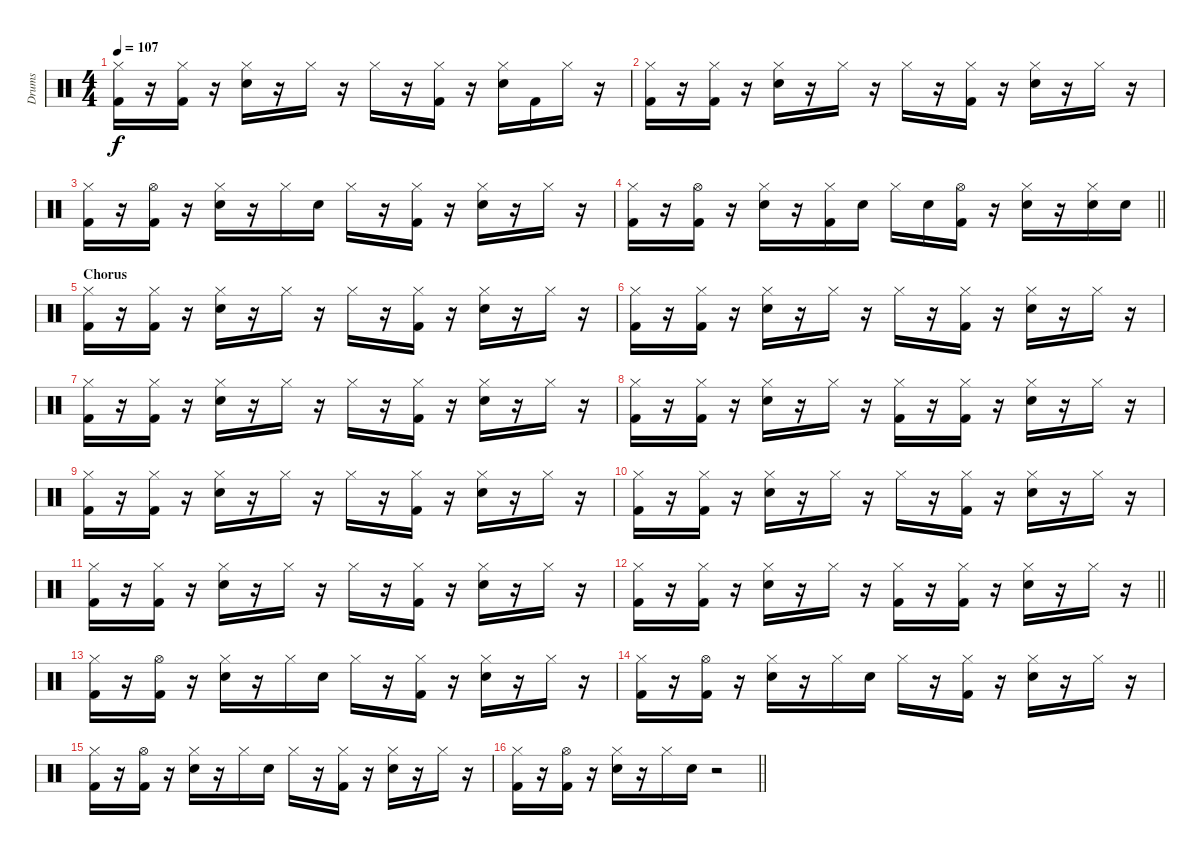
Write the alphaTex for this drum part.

\track ("Drums" "Drums") {instrument percussion}
\staff {score}
\articulation defaults
\ts (4 4)
\tempo 107
\clef neutral
\ks c
("Hi-Hat (closed)" "Kick (hit) 2").16{dy f} r.16 ("Hi-Hat (closed)" "Kick (hit) 2").16 r.16 ("Hi-Hat (closed)" "Electric Snare (hit)").16 r.16 "Hi-Hat (closed)".16 r.16 "Hi-Hat (closed)".16 r.16 ("Hi-Hat (closed)" "Kick (hit) 2").16 r.16 ("Hi-Hat (closed)" "Electric Snare (hit)").16 "Kick (hit) 2".16 "Hi-Hat (closed)".16 r.16 |
("Hi-Hat (closed)" "Kick (hit) 2").16 r.16 ("Hi-Hat (closed)" "Kick (hit) 2").16 r.16 ("Hi-Hat (closed)" "Electric Snare (hit)").16 r.16 "Hi-Hat (closed)".16 r.16 "Hi-Hat (closed)".16 r.16 ("Hi-Hat (closed)" "Kick (hit) 2").16 r.16 ("Hi-Hat (closed)" "Electric Snare (hit)").16 r.16 "Hi-Hat (closed)".16 r.16 |
("Hi-Hat (closed)" "Kick (hit) 2").16 r.16 ("Hi-Hat (open)" "Kick (hit) 2").16 r.16 ("Hi-Hat (closed)" "Electric Snare (hit)").16 r.16 "Hi-Hat (closed)".16 "Electric Snare (hit)".16 "Hi-Hat (closed)".16 r.16 ("Hi-Hat (closed)" "Kick (hit) 2").16 r.16 ("Hi-Hat (closed)" "Electric Snare (hit)").16 r.16 "Hi-Hat (closed)".16 r.16 |
\barLineRight lightlight
("Hi-Hat (closed)" "Kick (hit) 2").16 r.16 ("Hi-Hat (open)" "Kick (hit) 2").16 r.16 ("Hi-Hat (closed)" "Electric Snare (hit)").16 r.16 ("Hi-Hat (closed)" "Kick (hit) 2").16 "Electric Snare (hit)".16 "Hi-Hat (closed)".16 "Electric Snare (hit)".16 ("Hi-Hat (open)" "Kick (hit) 2").16 r.16 ("Hi-Hat (closed)" "Electric Snare (hit)").16 r.16 ("Hi-Hat (closed)" "Electric Snare (hit)").16 "Electric Snare (hit)".16 |
\section ("" "Chorus")
("Hi-Hat (closed)" "Kick (hit) 2").16 r.16 ("Hi-Hat (closed)" "Kick (hit) 2").16 r.16 ("Hi-Hat (closed)" "Electric Snare (hit)").16 r.16 "Hi-Hat (closed)".16 r.16 "Hi-Hat (closed)".16 r.16 ("Hi-Hat (closed)" "Kick (hit) 2").16 r.16 ("Hi-Hat (closed)" "Electric Snare (hit)").16 r.16 "Hi-Hat (closed)".16 r.16 |
("Hi-Hat (closed)" "Kick (hit) 2").16 r.16 ("Hi-Hat (closed)" "Kick (hit) 2").16 r.16 ("Hi-Hat (closed)" "Electric Snare (hit)").16 r.16 "Hi-Hat (closed)".16 r.16 "Hi-Hat (closed)".16 r.16 ("Hi-Hat (closed)" "Kick (hit) 2").16 r.16 ("Hi-Hat (closed)" "Electric Snare (hit)").16 r.16 "Hi-Hat (closed)".16 r.16 |
("Hi-Hat (closed)" "Kick (hit) 2").16 r.16 ("Hi-Hat (closed)" "Kick (hit) 2").16 r.16 ("Hi-Hat (closed)" "Electric Snare (hit)").16 r.16 "Hi-Hat (closed)".16 r.16 "Hi-Hat (closed)".16 r.16 ("Hi-Hat (closed)" "Kick (hit) 2").16 r.16 ("Hi-Hat (closed)" "Electric Snare (hit)").16 r.16 "Hi-Hat (closed)".16 r.16 |
("Hi-Hat (closed)" "Kick (hit) 2").16 r.16 ("Hi-Hat (closed)" "Kick (hit) 2").16 r.16 ("Hi-Hat (closed)" "Electric Snare (hit)").16 r.16 "Hi-Hat (closed)".16 r.16 ("Hi-Hat (closed)" "Kick (hit) 2").16 r.16 ("Hi-Hat (closed)" "Kick (hit) 2").16 r.16 ("Hi-Hat (closed)" "Electric Snare (hit)").16 r.16 "Hi-Hat (closed)".16 r.16 |
("Hi-Hat (closed)" "Kick (hit) 2").16 r.16 ("Hi-Hat (closed)" "Kick (hit) 2").16 r.16 ("Hi-Hat (closed)" "Electric Snare (hit)").16 r.16 "Hi-Hat (closed)".16 r.16 "Hi-Hat (closed)".16 r.16 ("Hi-Hat (closed)" "Kick (hit) 2").16 r.16 ("Hi-Hat (closed)" "Electric Snare (hit)").16 r.16 "Hi-Hat (closed)".16 r.16 |
("Hi-Hat (closed)" "Kick (hit) 2").16 r.16 ("Hi-Hat (closed)" "Kick (hit) 2").16 r.16 ("Hi-Hat (closed)" "Electric Snare (hit)").16 r.16 "Hi-Hat (closed)".16 r.16 "Hi-Hat (closed)".16 r.16 ("Hi-Hat (closed)" "Kick (hit) 2").16 r.16 ("Hi-Hat (closed)" "Electric Snare (hit)").16 r.16 "Hi-Hat (closed)".16 r.16 |
("Hi-Hat (closed)" "Kick (hit) 2").16 r.16 ("Hi-Hat (closed)" "Kick (hit) 2").16 r.16 ("Hi-Hat (closed)" "Electric Snare (hit)").16 r.16 "Hi-Hat (closed)".16 r.16 "Hi-Hat (closed)".16 r.16 ("Hi-Hat (closed)" "Kick (hit) 2").16 r.16 ("Hi-Hat (closed)" "Electric Snare (hit)").16 r.16 "Hi-Hat (closed)".16 r.16 |
\barLineRight lightlight
("Hi-Hat (closed)" "Kick (hit) 2").16 r.16 ("Hi-Hat (closed)" "Kick (hit) 2").16 r.16 ("Hi-Hat (closed)" "Electric Snare (hit)").16 r.16 "Hi-Hat (closed)".16 r.16 ("Hi-Hat (closed)" "Kick (hit) 2").16 r.16 ("Hi-Hat (closed)" "Kick (hit) 2").16 r.16 ("Hi-Hat (closed)" "Electric Snare (hit)").16 r.16 "Hi-Hat (closed)".16 r.16 |
("Hi-Hat (closed)" "Kick (hit) 2").16 r.16 ("Hi-Hat (open)" "Kick (hit) 2").16 r.16 ("Hi-Hat (closed)" "Electric Snare (hit)").16 r.16 "Hi-Hat (closed)".16 "Electric Snare (hit)".16 "Hi-Hat (closed)".16 r.16 ("Hi-Hat (closed)" "Kick (hit) 2").16 r.16 ("Hi-Hat (closed)" "Electric Snare (hit)").16 r.16 "Hi-Hat (closed)".16 r.16 |
("Hi-Hat (closed)" "Kick (hit) 2").16 r.16 ("Hi-Hat (open)" "Kick (hit) 2").16 r.16 ("Hi-Hat (closed)" "Electric Snare (hit)").16 r.16 "Hi-Hat (closed)".16 "Electric Snare (hit)".16 "Hi-Hat (closed)".16 r.16 ("Hi-Hat (closed)" "Kick (hit) 2").16 r.16 ("Hi-Hat (closed)" "Electric Snare (hit)").16 r.16 "Hi-Hat (closed)".16 r.16 |
("Hi-Hat (closed)" "Kick (hit) 2").16 r.16 ("Hi-Hat (open)" "Kick (hit) 2").16 r.16 ("Hi-Hat (closed)" "Electric Snare (hit)").16 r.16 "Hi-Hat (closed)".16 "Electric Snare (hit)".16 "Hi-Hat (closed)".16 r.16 ("Hi-Hat (closed)" "Kick (hit) 2").16 r.16 ("Hi-Hat (closed)" "Electric Snare (hit)").16 r.16 "Hi-Hat (closed)".16 r.16 |
\barLineRight lightlight
("Hi-Hat (closed)" "Kick (hit) 2").16 r.16 ("Hi-Hat (open)" "Kick (hit) 2").16 r.16 ("Hi-Hat (closed)" "Electric Snare (hit)").16 r.16 "Hi-Hat (closed)".16 "Electric Snare (hit)".16 r.2
